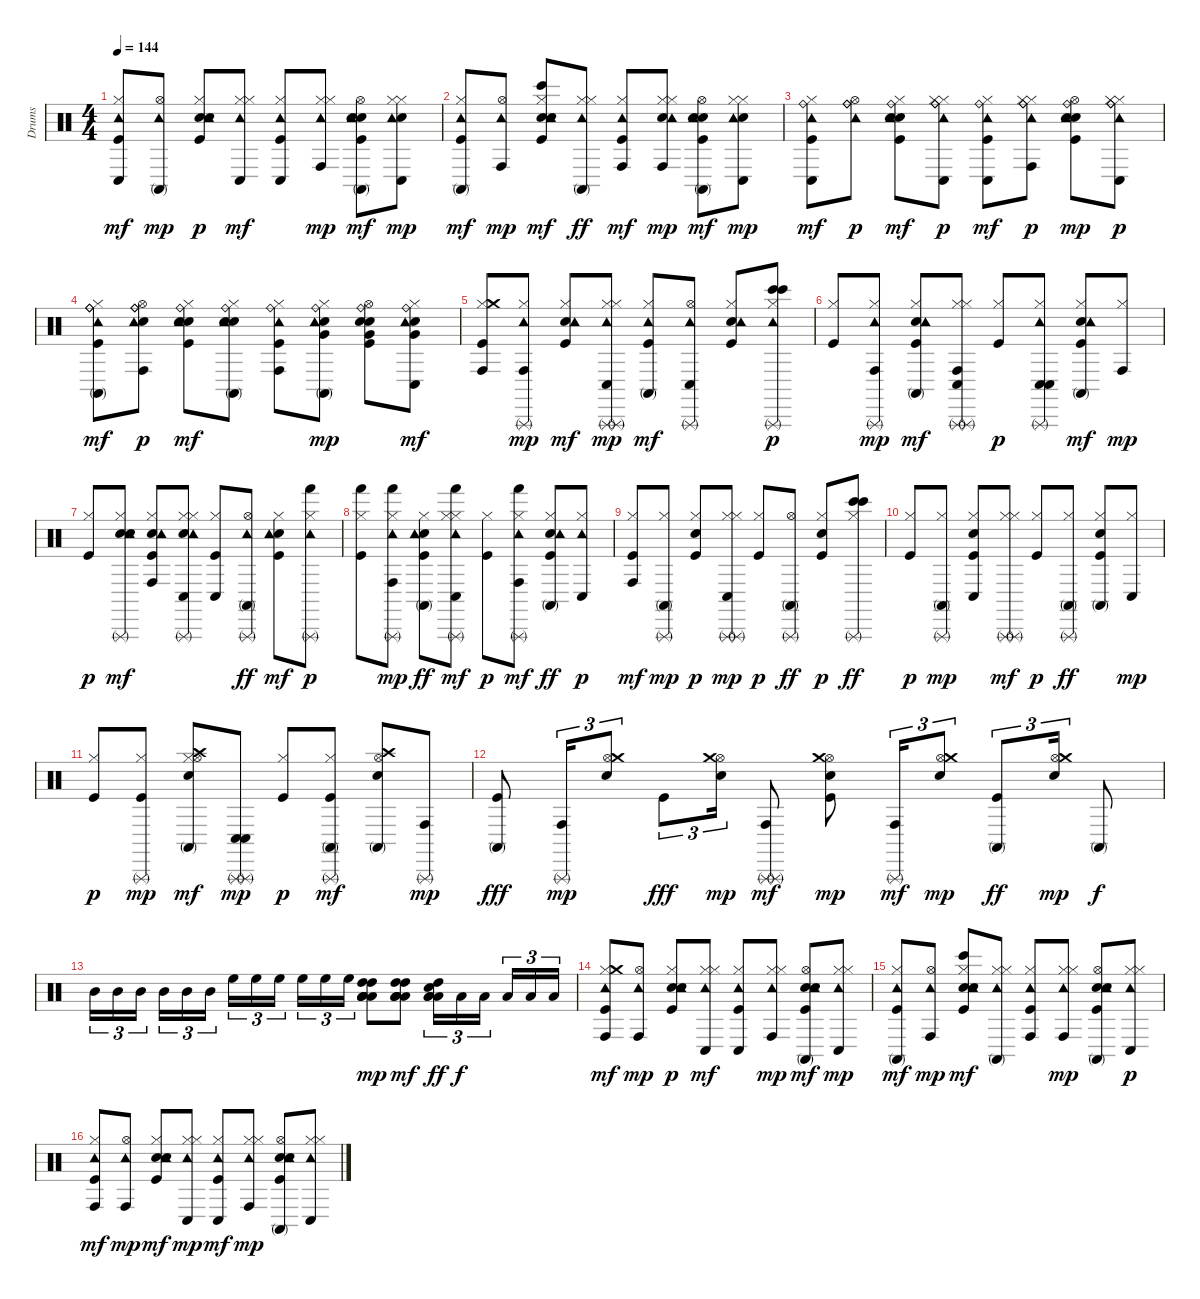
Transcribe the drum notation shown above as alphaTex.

\track ("Drums" "Drums") {instrument percussion}
\staff {score}
\articulation defaults
\ts (4 4)
\tempo 144
\clef neutral
\ks c
("Kick (hit)" "Hi-Hat (closed)" "Tambourine (hit)" "Conga low (hit)").8{dy mf} ("Hi-Hat (open)" "Tambourine (hit)" "Conga high (mute)").8{dy mp} ("Kick (hit)" "Snare (hit) 2" "Hand Clap (hit)" "Hi-Hat (closed)" "Tambourine (hit)").8{dy p} ("Hi-Hat (closed)" "Tambourine (hit)" "Conga low (hit)" "Hi-Hat (closed)").8{dy mf} ("Kick (hit)" "Hi-Hat (closed)" "Tambourine (hit)" "Conga low (hit)").8 ("Hi-Hat (closed)" "Tambourine (hit)" "Conga high (hit)" "Hi-Hat (closed)").8{dy mp} ("Kick (hit)" "Snare (hit) 2" "Hand Clap (hit)" "Hi-Hat (open)" "Tambourine (hit)" "Conga high (mute)").8{dy mf} ("Hand Clap (hit)" "Hi-Hat (closed)" "Tambourine (hit)" "Conga low (hit)" "Hi-Hat (closed)").8{dy mp} |
("Kick (hit)" "Hi-Hat (closed)" "Tambourine (hit)" "Conga high (mute)").8{dy mf} ("Hi-Hat (open)" "Tambourine (hit)" "Conga high (hit)").8{dy mp} ("Kick (hit)" "Snare (hit) 2" "Hand Clap (hit)" "Hi-Hat (closed)" "Tambourine (hit)" "Bongo High (hit)").8{dy mf} ("Hi-Hat (closed)" "Tambourine (hit)" "Conga high (mute)" "Hi-Hat (closed)").8{dy ff} ("Kick (hit)" "Hi-Hat (closed)" "Tambourine (hit)" "Conga high (hit)").8{dy mf} ("Hand Clap (hit)" "Hi-Hat (closed)" "Tambourine (hit)" "Conga high (hit)" "Hi-Hat (closed)").8{dy mp} ("Kick (hit)" "Snare (hit) 2" "Hand Clap (hit)" "Hi-Hat (open)" "Tambourine (hit)" "Conga high (mute)").8{dy mf} ("Hand Clap (hit)" "Hi-Hat (closed)" "Tambourine (hit)" "Conga low (hit)" "Hi-Hat (closed)").8{dy mp} |
("Kick (hit)" "Hi-Hat (closed)" "Ride (bell)" "Tambourine (hit)" "Conga low (hit)").8{dy mf} ("Hi-Hat (open)" "Ride (bell)" "Tambourine (hit)" "Ride (bell)").8{dy p} ("Kick (hit)" "Snare (hit) 2" "Hand Clap (hit)" "Hi-Hat (closed)" "Ride (bell)" "Tambourine (hit)").8{dy mf} ("Hi-Hat (closed)" "Ride (bell)" "Tambourine (hit)" "Conga low (hit)" "Hi-Hat (closed)" "Ride (bell)").8{dy p} ("Kick (hit)" "Hi-Hat (closed)" "Ride (bell)" "Tambourine (hit)" "Conga low (hit)").8{dy mf} ("Hi-Hat (closed)" "Ride (bell)" "Tambourine (hit)" "Conga high (hit)" "Hi-Hat (closed)" "Ride (bell)").8{dy p} ("Kick (hit)" "Snare (hit) 2" "Hand Clap (hit)" "Hi-Hat (open)" "Ride (bell)" "Tambourine (hit)").8{dy mp} ("Hi-Hat (closed)" "Ride (bell)" "Tambourine (hit)" "Conga low (hit)" "Hi-Hat (closed)" "Ride (bell)").8{dy p} |
("Kick (hit)" "Hi-Hat (closed)" "Ride (bell)" "Tambourine (hit)" "Ride (bell)" "Conga high (mute)").8{dy mf} ("Snare (hit) 2" "Hi-Hat (open)" "Ride (bell)" "Tambourine (hit)" "Conga high (hit)" "Ride (bell)").8{dy p} ("Kick (hit)" "Snare (hit) 2" "Hand Clap (hit)" "Hi-Hat (closed)" "Ride (bell)" "Tambourine (hit)").8{dy mf} ("Snare (hit) 2" "Hi-Hat (closed)" "Ride (bell)" "Tambourine (hit)" "Conga high (mute)" "Electric Snare (hit)").8 ("Kick (hit)" "Hi-Hat (closed)" "Ride (bell)" "Tambourine (hit)" "Conga high (hit)").8 ("Electric Snare (hit)" "Hi-Hat (closed)" "Very Low Tom (hit)" "Ride (bell)" "Tambourine (hit)" "Conga high (mute)").8{dy mp} ("Kick (hit)" "Snare (hit) 2" "Hand Clap (hit)" "Very Low Tom (hit)" "Hi-Hat (open)" "Ride (bell)").8 ("Snare (hit) 2" "Hi-Hat (closed)" "Very Low Tom (hit)" "Ride (bell)" "Tambourine (hit)" "Conga low (hit)").8{dy mf} |
("Kick (hit)" "Hi-Hat (closed)" "Crash medium (hit)" "Conga high (hit)").8 ("Hi-Hat (closed)" "Tambourine (hit)" "Conga high (hit)" "Triangle (rnute)").8{dy mp} ("Kick (hit)" "Snare (hit) 2" "Hi-Hat (closed)" "Tambourine (hit)").8{dy mf} ("Hi-Hat (closed)" "Tambourine (hit)" "Conga low (hit)" "Triangle (rnute)" "Hi-Hat (closed)" "Triangle (rnute)").8{dy mp} ("Kick (hit)" "Hi-Hat (closed)" "Tambourine (hit)" "Conga high (mute)").8{dy mf} ("Hi-Hat (open)" "Tambourine (hit)" "Conga low (hit)" "Triangle (rnute)").8 ("Kick (hit)" "Snare (hit) 2" "Hi-Hat (closed)" "Tambourine (hit)").8 ("Hi-Hat (closed)" "Tambourine (hit)" "Bongo High (hit)" "Triangle (rnute)" "Bongo High (hit)").8{dy p} |
("Kick (hit)" "Hi-Hat (closed)").8 ("Hi-Hat (closed)" "Tambourine (hit)" "Conga high (hit)" "Triangle (rnute)").8{dy mp} ("Kick (hit)" "Snare (hit) 2" "Hi-Hat (closed)" "Tambourine (hit)" "Conga high (mute)").8{dy mf} ("Hi-Hat (closed)" "Conga high (hit)" "Triangle (rnute)" "Hi-Hat (closed)" "Conga low (hit)" "Triangle (rnute)").8 ("Kick (hit)" "Hi-Hat (closed)").8{dy p} ("Hi-Hat (closed)" "Tambourine (hit)" "Conga low (hit)" "Triangle (rnute)" "Conga low (hit)").8 ("Kick (hit)" "Snare (hit) 2" "Hi-Hat (closed)" "Tambourine (hit)" "Conga high (mute)").8{dy mf} ("Hi-Hat (closed)" "Conga high (hit)").8{dy mp} |
("Kick (hit)" "Hi-Hat (closed)").8{dy p} ("Electric Snare (hit)" "Hi-Hat (closed)" "Tambourine (hit)" "Triangle (rnute)" "Electric Snare (hit)").8{dy mf} ("Kick (hit)" "Snare (hit) 2" "Hi-Hat (closed)" "Tambourine (hit)" "Conga high (hit)").8 ("Electric Snare (hit)" "Hi-Hat (closed)" "Tambourine (hit)" "Conga low (hit)" "Triangle (rnute)" "Hi-Hat (closed)").8 ("Kick (hit)" "Hi-Hat (closed)" "Conga low (hit)").8 ("Hi-Hat (open)" "Tambourine (hit)" "Conga high (mute)" "Triangle (rnute)").8{dy ff} ("Kick (hit)" "Snare (hit) 2" "Hi-Hat (closed)" "Tambourine (hit)").8{dy mf} ("Hi-Hat (closed)" "Tambourine (hit)" "Hand (hit)" "Triangle (rnute)").8{dy p} |
("Kick (hit)" "Hi-Hat (closed)" "Hand (hit)").8 ("Hi-Hat (closed)" "Tambourine (hit)" "Conga high (hit)" "Triangle (rnute)" "Hand (hit)").8{dy mp} ("Kick (hit)" "Snare (hit) 2" "Hi-Hat (closed)" "Tambourine (hit)" "Conga high (mute)").8{dy ff} ("Hi-Hat (closed)" "Tambourine (hit)" "Hand (hit)" "Conga low (hit)" "Triangle (rnute)" "Hi-Hat (closed)").8{dy mf} ("Kick (hit)" "Hi-Hat (closed)").8{dy p} ("Hi-Hat (closed)" "Tambourine (hit)" "Hand (hit)" "Conga high (hit)" "Triangle (rnute)").8{dy mf} ("Kick (hit)" "Snare (hit) 2" "Hi-Hat (closed)" "Tambourine (hit)" "Conga high (mute)").8{dy ff} ("Hi-Hat (closed)" "Tambourine (hit)" "Conga low (hit)").8{dy p} |
("Kick (hit)" "Hi-Hat (closed)" "Conga high (hit)").8{dy mf} ("Hi-Hat (closed)" "Conga high (mute)" "Triangle (rnute)").8{dy mp} ("Kick (hit)" "Snare (hit) 2" "Hi-Hat (closed)").8{dy p} ("Hi-Hat (closed)" "Conga low (hit)" "Triangle (rnute)" "Hi-Hat (closed)" "Triangle (rnute)").8{dy mp} ("Kick (hit)" "Hi-Hat (closed)").8{dy p} ("Hi-Hat (open)" "Conga high (mute)" "Triangle (rnute)").8{dy ff} ("Kick (hit)" "Snare (hit) 2" "Hi-Hat (closed)").8{dy p} ("Hi-Hat (closed)" "Bongo High (hit)" "Triangle (rnute)" "Bongo High (hit)").8{dy ff} |
("Kick (hit)" "Hi-Hat (closed)").8{dy p} ("Hi-Hat (closed)" "Conga high (mute)" "Triangle (rnute)").8{dy mp} ("Kick (hit)" "Snare (hit) 2" "Hi-Hat (closed)" "Conga low (hit)").8 ("Hi-Hat (closed)" "Triangle (rnute)" "Hi-Hat (closed)" "Triangle (rnute)").8{dy mf} ("Kick (hit)" "Hi-Hat (closed)").8{dy p} ("Hi-Hat (closed)" "Conga high (mute)" "Triangle (rnute)").8{dy ff} ("Kick (hit)" "Snare (hit) 2" "Hi-Hat (closed)" "Conga high (mute)").8 ("Hi-Hat (closed)" "Conga low (hit)").8{dy mp} |
("Kick (hit)" "Hi-Hat (closed)").8{dy p} ("Kick (hit)" "Hi-Hat (closed)" "Triangle (rnute)").8{dy mp} ("Snare (hit) 2" "Hi-Hat (closed)" "Hi-Hat (open)" "Crash high (hit)" "Conga high (mute)").8{dy mf} ("Conga low (hit)" "Triangle (rnute)" "Conga low (hit)" "Triangle (rnute)").8{dy mp} ("Kick (hit)" "Hi-Hat (closed)").8{dy p} ("Kick (hit)" "Hi-Hat (closed)" "Conga high (mute)" "Triangle (rnute)").8{dy mf} ("Snare (hit) 2" "Hi-Hat (open)" "Crash high (hit)" "Conga high (mute)").8 ("Conga high (hit)" "Triangle (rnute)").8{dy mp} |
("Kick (hit)" "Conga high (mute)").8{dy fff} ("Conga high (hit)" "Triangle (rnute)").16{tu (3 2) dy mp} ("Snare (hit) 2" "Hi-Hat (open)" "Crash medium (hit)").8{tu (3 2)} "Kick (hit)".8{tu (3 2) dy fff} ("Snare (hit) 2" "Hi-Hat (open)" "Crash medium (hit)").16{tu (3 2) dy mp} ("Conga high (hit)" "Triangle (rnute)" "Triangle (rnute)").8{dy mf} ("Kick (hit)" "Snare (hit) 2" "Hi-Hat (open)" "Crash medium (hit)").8{dy mp} ("Conga high (hit)" "Triangle (rnute)").16{tu (3 2) dy mf} ("Snare (hit) 2" "Hi-Hat (open)" "Crash medium (hit)").8{tu (3 2) dy mp} ("Kick (hit)" "Conga high (mute)").8{tu (3 2) dy ff} ("Snare (hit) 2" "Hi-Hat (open)" "Crash medium (hit)").16{tu (3 2) dy mp} "Conga high (mute)".8{dy f} |
"Mid Tom (hit)".16{tu (3 2)} "Mid Tom (hit)".16{tu (3 2)} "Mid Tom (hit)".16{tu (3 2) beam splitsecondary} "Mid Tom (hit)".16{tu (3 2)} "Mid Tom (hit)".16{tu (3 2)} "Mid Tom (hit)".16{tu (3 2)} "High Floor Tom (hit)".16{tu (3 2)} "High Floor Tom (hit)".16{tu (3 2)} "High Floor Tom (hit)".16{tu (3 2) beam splitsecondary} "High Floor Tom (hit)".16{tu (3 2)} "High Floor Tom (hit)".16{tu (3 2)} "High Floor Tom (hit)".16{tu (3 2)} ("Low Floor Tom (hit)" "High Tom (hit)" "Low Floor Tom (hit)" "Low Floor Tom (hit)" "High Tom (hit)" "Low Floor Tom (hit)").8{dy mp} ("Low Floor Tom (hit)" "High Tom (hit)" "Low Floor Tom (hit)" "Low Floor Tom (hit)" "High Tom (hit)" "Low Floor Tom (hit)").8{dy mf} ("Low Floor Tom (hit)" "High Tom (hit)" "Low Floor Tom (hit)" "Snare (hit) 2" "Low Tom (hit)").16{tu (3 2) dy ff} "Low Tom (hit)".16{tu (3 2) dy f} "Low Tom (hit)".16{tu (3 2) beam splitsecondary} "Low Tom (hit)".16{tu (3 2)} "Low Tom (hit)".16{tu (3 2)} "Low Tom (hit)".16{tu (3 2)} |
("Kick (hit)" "Hi-Hat (closed)" "Tambourine (hit)" "Crash medium (hit)" "Conga high (hit)").8{dy mf} ("Hi-Hat (open)" "Tambourine (hit)" "Conga high (hit)").8{dy mp} ("Kick (hit)" "Snare (hit) 2" "Hand Clap (hit)" "Hi-Hat (closed)" "Tambourine (hit)").8{dy p} ("Hi-Hat (closed)" "Tambourine (hit)" "Conga low (hit)" "Hi-Hat (closed)").8{dy mf} ("Kick (hit)" "Hi-Hat (closed)" "Tambourine (hit)" "Conga low (hit)").8 ("Hi-Hat (closed)" "Tambourine (hit)" "Conga high (hit)" "Hi-Hat (closed)").8{dy mp} ("Kick (hit)" "Snare (hit) 2" "Hand Clap (hit)" "Hi-Hat (open)" "Tambourine (hit)" "Conga high (mute)").8{dy mf} ("Hi-Hat (closed)" "Tambourine (hit)" "Conga low (hit)" "Hi-Hat (closed)").8{dy mp} |
("Kick (hit)" "Hi-Hat (closed)" "Tambourine (hit)" "Conga high (mute)").8{dy mf} ("Hi-Hat (open)" "Tambourine (hit)" "Conga high (hit)").8{dy mp} ("Kick (hit)" "Snare (hit) 2" "Hand Clap (hit)" "Hi-Hat (closed)" "Tambourine (hit)" "Bongo High (hit)").8{dy mf} ("Hi-Hat (closed)" "Tambourine (hit)" "Conga high (mute)" "Hi-Hat (closed)").8 ("Kick (hit)" "Hi-Hat (closed)" "Tambourine (hit)" "Conga high (hit)").8 ("Hi-Hat (closed)" "Tambourine (hit)" "Conga high (hit)" "Hi-Hat (closed)").8{dy mp} ("Kick (hit)" "Snare (hit) 2" "Hand Clap (hit)" "Hi-Hat (open)" "Tambourine (hit)" "Conga high (mute)").8 ("Hi-Hat (closed)" "Tambourine (hit)" "Conga low (hit)" "Hi-Hat (closed)").8{dy p} |
("Kick (hit)" "Hi-Hat (closed)" "Tambourine (hit)" "Conga high (hit)").8{dy mf} ("Hi-Hat (open)" "Tambourine (hit)" "Conga high (hit)").8{dy mp} ("Kick (hit)" "Snare (hit) 2" "Hand Clap (hit)" "Hi-Hat (closed)" "Tambourine (hit)").8{dy mf} ("Hi-Hat (closed)" "Tambourine (hit)" "Conga low (hit)" "Hi-Hat (closed)").8{dy mp} ("Kick (hit)" "Hi-Hat (closed)" "Tambourine (hit)" "Conga low (hit)").8{dy mf} ("Hi-Hat (closed)" "Tambourine (hit)" "Conga high (hit)" "Hi-Hat (closed)").8{dy mp} ("Kick (hit)" "Snare (hit) 2" "Hand Clap (hit)" "Hi-Hat (open)" "Tambourine (hit)" "Conga high (mute)").8 ("Hi-Hat (closed)" "Tambourine (hit)" "Conga low (hit)" "Hi-Hat (closed)").8
